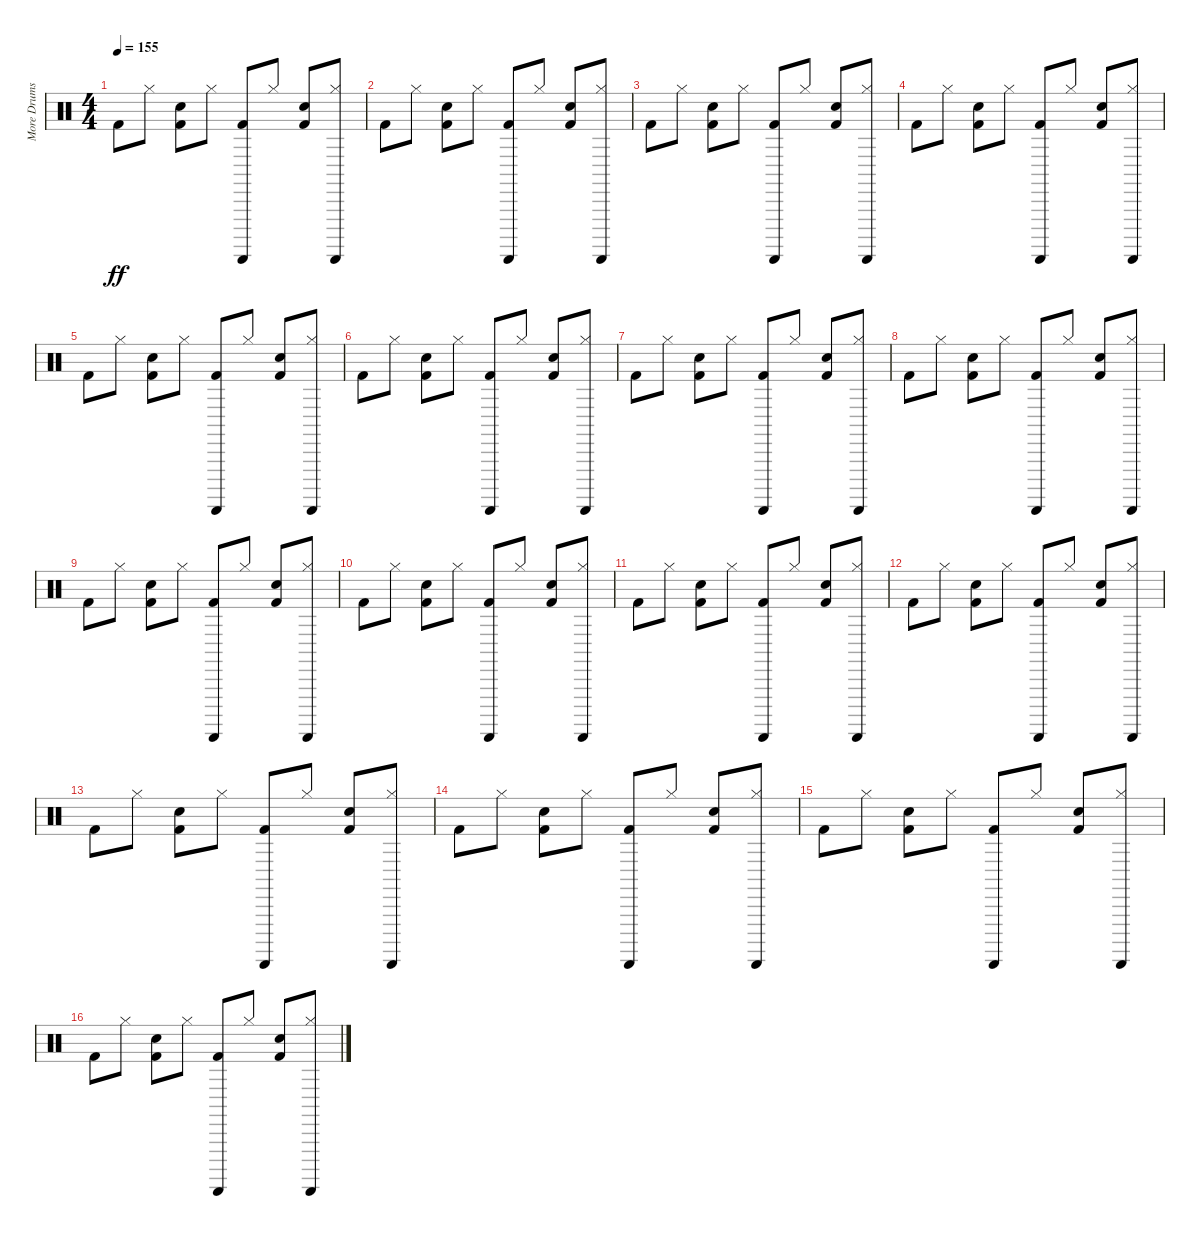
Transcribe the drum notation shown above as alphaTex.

\track ("More Drums" "More Drums") {instrument percussion}
\staff {score}
\articulation defaults
\ts (4 4)
\tempo 155
\clef neutral
\ks c "Kick (hit) 2".8{dy ff} "Hi-Hat (closed)".8
("Kick (hit) 2" "Electric Snare (hit)").8 "Hi-Hat (closed)".8 ("Kick (hit) 2" "Guiro (scrap-return)").8 "Hi-Hat (closed)".8 ("Kick (hit) 2" "Electric Snare (hit)").8 ("Hi-Hat (closed)" "Guiro (scrap-return)").8 |
"Kick (hit) 2".8 "Hi-Hat (closed)".8 ("Kick (hit) 2" "Electric Snare (hit)").8 "Hi-Hat (closed)".8 ("Kick (hit) 2" "Guiro (scrap-return)").8 "Hi-Hat (closed)".8 ("Kick (hit) 2" "Electric Snare (hit)").8 ("Hi-Hat (closed)" "Guiro (scrap-return)").8 |
"Kick (hit) 2".8 "Hi-Hat (closed)".8 ("Kick (hit) 2" "Electric Snare (hit)").8 "Hi-Hat (closed)".8 ("Kick (hit) 2" "Guiro (scrap-return)").8 "Hi-Hat (closed)".8 ("Kick (hit) 2" "Electric Snare (hit)").8 ("Hi-Hat (closed)" "Guiro (scrap-return)").8 |
"Kick (hit) 2".8 "Hi-Hat (closed)".8 ("Kick (hit) 2" "Electric Snare (hit)").8 "Hi-Hat (closed)".8 ("Kick (hit) 2" "Guiro (scrap-return)").8 "Hi-Hat (closed)".8 ("Kick (hit) 2" "Electric Snare (hit)").8 ("Hi-Hat (closed)" "Guiro (scrap-return)").8 |
"Kick (hit) 2".8 "Hi-Hat (closed)".8 ("Kick (hit) 2" "Electric Snare (hit)").8 "Hi-Hat (closed)".8 ("Kick (hit) 2" "Guiro (scrap-return)").8 "Hi-Hat (closed)".8 ("Kick (hit) 2" "Electric Snare (hit)").8 ("Hi-Hat (closed)" "Guiro (scrap-return)").8 |
"Kick (hit) 2".8 "Hi-Hat (closed)".8 ("Kick (hit) 2" "Electric Snare (hit)").8 "Hi-Hat (closed)".8 ("Kick (hit) 2" "Guiro (scrap-return)").8 "Hi-Hat (closed)".8 ("Kick (hit) 2" "Electric Snare (hit)").8 ("Hi-Hat (closed)" "Guiro (scrap-return)").8 |
"Kick (hit) 2".8 "Hi-Hat (closed)".8 ("Kick (hit) 2" "Electric Snare (hit)").8 "Hi-Hat (closed)".8 ("Kick (hit) 2" "Guiro (scrap-return)").8 "Hi-Hat (closed)".8 ("Kick (hit) 2" "Electric Snare (hit)").8 ("Hi-Hat (closed)" "Guiro (scrap-return)").8 |
"Kick (hit) 2".8 "Hi-Hat (closed)".8 ("Kick (hit) 2" "Electric Snare (hit)").8 "Hi-Hat (closed)".8 ("Kick (hit) 2" "Guiro (scrap-return)").8 "Hi-Hat (closed)".8 ("Kick (hit) 2" "Electric Snare (hit)").8 ("Hi-Hat (closed)" "Guiro (scrap-return)").8 |
"Kick (hit) 2".8 "Hi-Hat (closed)".8 ("Kick (hit) 2" "Electric Snare (hit)").8 "Hi-Hat (closed)".8 ("Kick (hit) 2" "Guiro (scrap-return)").8 "Hi-Hat (closed)".8 ("Kick (hit) 2" "Electric Snare (hit)").8 ("Hi-Hat (closed)" "Guiro (scrap-return)").8 |
"Kick (hit) 2".8 "Hi-Hat (closed)".8 ("Kick (hit) 2" "Electric Snare (hit)").8 "Hi-Hat (closed)".8 ("Kick (hit) 2" "Guiro (scrap-return)").8 "Hi-Hat (closed)".8 ("Kick (hit) 2" "Electric Snare (hit)").8 ("Hi-Hat (closed)" "Guiro (scrap-return)").8 |
"Kick (hit) 2".8 "Hi-Hat (closed)".8 ("Kick (hit) 2" "Electric Snare (hit)").8 "Hi-Hat (closed)".8 ("Kick (hit) 2" "Guiro (scrap-return)").8 "Hi-Hat (closed)".8 ("Kick (hit) 2" "Electric Snare (hit)").8 ("Hi-Hat (closed)" "Guiro (scrap-return)").8 |
"Kick (hit) 2".8 "Hi-Hat (closed)".8 ("Kick (hit) 2" "Electric Snare (hit)").8 "Hi-Hat (closed)".8 ("Kick (hit) 2" "Guiro (scrap-return)").8 "Hi-Hat (closed)".8 ("Kick (hit) 2" "Electric Snare (hit)").8 ("Hi-Hat (closed)" "Guiro (scrap-return)").8 |
"Kick (hit) 2".8 "Hi-Hat (closed)".8 ("Kick (hit) 2" "Electric Snare (hit)").8 "Hi-Hat (closed)".8 ("Kick (hit) 2" "Guiro (scrap-return)").8 "Hi-Hat (closed)".8 ("Kick (hit) 2" "Electric Snare (hit)").8 ("Hi-Hat (closed)" "Guiro (scrap-return)").8 |
"Kick (hit) 2".8 "Hi-Hat (closed)".8 ("Kick (hit) 2" "Electric Snare (hit)").8 "Hi-Hat (closed)".8 ("Kick (hit) 2" "Guiro (scrap-return)").8 "Hi-Hat (closed)".8 ("Kick (hit) 2" "Electric Snare (hit)").8 ("Hi-Hat (closed)" "Guiro (scrap-return)").8 |
"Kick (hit) 2".8 "Hi-Hat (closed)".8 ("Kick (hit) 2" "Electric Snare (hit)").8 "Hi-Hat (closed)".8 ("Kick (hit) 2" "Guiro (scrap-return)").8 "Hi-Hat (closed)".8 ("Kick (hit) 2" "Electric Snare (hit)").8 ("Hi-Hat (closed)" "Guiro (scrap-return)").8 |
"Kick (hit) 2".8 "Hi-Hat (closed)".8 ("Kick (hit) 2" "Electric Snare (hit)").8 "Hi-Hat (closed)".8 ("Kick (hit) 2" "Guiro (scrap-return)").8 "Hi-Hat (closed)".8 ("Kick (hit) 2" "Electric Snare (hit)").8 ("Hi-Hat (closed)" "Guiro (scrap-return)").8
